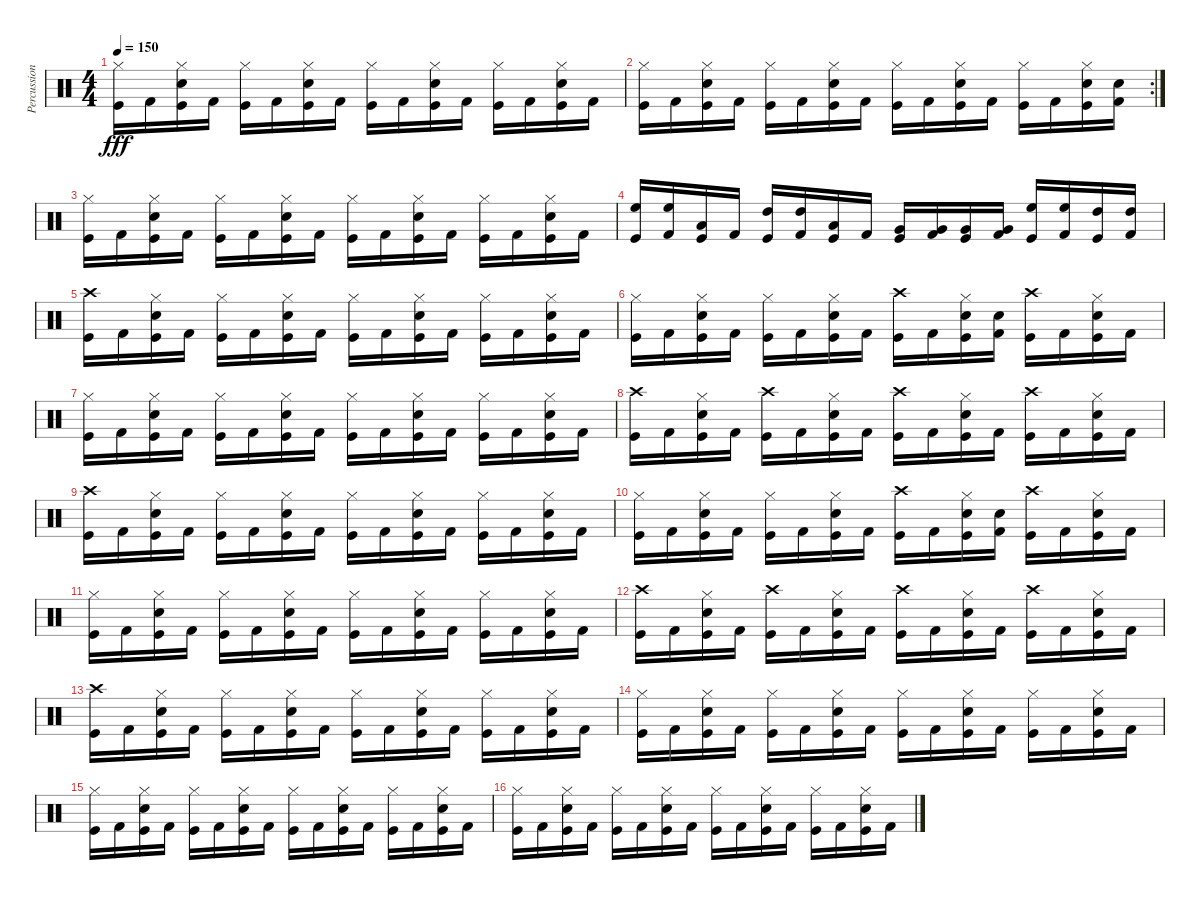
\track ("Percussion" "Percussion") {instrument percussion}
\staff {score}
\articulation defaults
\ts (4 4)
\tempo 150
\clef neutral
\ks c
("Hi-Hat (closed)" "Kick (hit)").16{dy fff} "Kick (hit) 2".16 ("Hi-Hat (closed)" "Electric Snare (hit)" "Kick (hit)").16 "Kick (hit) 2".16 ("Hi-Hat (closed)" "Kick (hit)").16 "Kick (hit) 2".16 ("Hi-Hat (closed)" "Electric Snare (hit)" "Kick (hit)").16 "Kick (hit) 2".16 ("Hi-Hat (closed)" "Kick (hit)").16 "Kick (hit) 2".16 ("Hi-Hat (closed)" "Electric Snare (hit)" "Kick (hit)").16 "Kick (hit) 2".16 ("Hi-Hat (closed)" "Kick (hit)").16 "Kick (hit) 2".16 ("Hi-Hat (closed)" "Electric Snare (hit)" "Kick (hit)").16 "Kick (hit) 2".16 |
\rc 2
("Hi-Hat (closed)" "Kick (hit)").16 "Kick (hit) 2".16 ("Hi-Hat (closed)" "Electric Snare (hit)" "Kick (hit)").16 "Kick (hit) 2".16 ("Hi-Hat (closed)" "Kick (hit)").16 "Kick (hit) 2".16 ("Hi-Hat (closed)" "Electric Snare (hit)" "Kick (hit)").16 "Kick (hit) 2".16 ("Hi-Hat (closed)" "Kick (hit)").16 "Kick (hit) 2".16 ("Hi-Hat (closed)" "Electric Snare (hit)" "Kick (hit)").16 "Kick (hit) 2".16 ("Hi-Hat (closed)" "Kick (hit)").16 "Kick (hit) 2".16 ("Hi-Hat (closed)" "Electric Snare (hit)" "Kick (hit)").16 ("Electric Snare (hit)" "Kick (hit) 2").16 |
("Hi-Hat (closed)" "Kick (hit)").16 "Kick (hit) 2".16 ("Hi-Hat (closed)" "Electric Snare (hit)" "Kick (hit)").16 "Kick (hit) 2".16 ("Hi-Hat (closed)" "Kick (hit)").16 "Kick (hit) 2".16 ("Hi-Hat (closed)" "Electric Snare (hit)" "Kick (hit)").16 "Kick (hit) 2".16 ("Hi-Hat (closed)" "Kick (hit)").16 "Kick (hit) 2".16 ("Hi-Hat (closed)" "Electric Snare (hit)" "Kick (hit)").16 "Kick (hit) 2".16 ("Hi-Hat (closed)" "Kick (hit)").16 "Kick (hit) 2".16 ("Hi-Hat (closed)" "Electric Snare (hit)" "Kick (hit)").16 "Kick (hit) 2".16 |
("High Floor Tom (hit)" "Kick (hit)").16 ("High Floor Tom (hit)" "Kick (hit) 2").16 ("Low Floor Tom (hit)" "Kick (hit)").16 "Kick (hit) 2".16 ("High Tom (hit)" "Kick (hit)").16 ("High Tom (hit)" "Kick (hit) 2").16 ("Low Floor Tom (hit)" "Kick (hit)").16 "Kick (hit) 2".16 ("Very Low Tom (hit)" "Kick (hit)").16 ("Very Low Tom (hit)" "Kick (hit) 2").16 ("Very Low Tom (hit)" "Kick (hit)").16 ("Very Low Tom (hit)" "Kick (hit) 2").16 ("High Floor Tom (hit)" "Kick (hit)").16 ("High Floor Tom (hit)" "Kick (hit) 2").16 ("High Tom (hit)" "Kick (hit)").16 ("High Tom (hit)" "Kick (hit) 2").16 |
("Crash high (hit)" "Kick (hit)").16 "Kick (hit) 2".16 ("Hi-Hat (closed)" "Electric Snare (hit)" "Kick (hit)").16 "Kick (hit) 2".16 ("Hi-Hat (closed)" "Kick (hit)").16 "Kick (hit) 2".16 ("Hi-Hat (closed)" "Electric Snare (hit)" "Kick (hit)").16 "Kick (hit) 2".16 ("Hi-Hat (closed)" "Kick (hit)").16 "Kick (hit) 2".16 ("Hi-Hat (closed)" "Electric Snare (hit)" "Kick (hit)").16 "Kick (hit) 2".16 ("Hi-Hat (closed)" "Kick (hit)").16 "Kick (hit) 2".16 ("Hi-Hat (closed)" "Electric Snare (hit)" "Kick (hit)").16 "Kick (hit) 2".16 |
("Hi-Hat (closed)" "Kick (hit)").16 "Kick (hit) 2".16 ("Hi-Hat (closed)" "Electric Snare (hit)" "Kick (hit)").16 "Kick (hit) 2".16 ("Hi-Hat (closed)" "Kick (hit)").16 "Kick (hit) 2".16 ("Hi-Hat (closed)" "Electric Snare (hit)" "Kick (hit)").16 "Kick (hit) 2".16 ("Crash high (hit)" "Kick (hit)").16 "Kick (hit) 2".16 ("Hi-Hat (closed)" "Electric Snare (hit)" "Kick (hit)").16 ("Electric Snare (hit)" "Kick (hit) 2").16 ("Crash high (hit)" "Kick (hit)").16 "Kick (hit) 2".16 ("Hi-Hat (closed)" "Electric Snare (hit)" "Kick (hit)").16 "Kick (hit) 2".16 |
("Hi-Hat (closed)" "Kick (hit)").16 "Kick (hit) 2".16 ("Hi-Hat (closed)" "Electric Snare (hit)" "Kick (hit)").16 "Kick (hit) 2".16 ("Hi-Hat (closed)" "Kick (hit)").16 "Kick (hit) 2".16 ("Hi-Hat (closed)" "Electric Snare (hit)" "Kick (hit)").16 "Kick (hit) 2".16 ("Hi-Hat (closed)" "Kick (hit)").16 "Kick (hit) 2".16 ("Hi-Hat (closed)" "Electric Snare (hit)" "Kick (hit)").16 "Kick (hit) 2".16 ("Hi-Hat (closed)" "Kick (hit)").16 "Kick (hit) 2".16 ("Hi-Hat (closed)" "Electric Snare (hit)" "Kick (hit)").16 "Kick (hit) 2".16 |
("Crash high (hit)" "Kick (hit)").16 "Kick (hit) 2".16 ("Hi-Hat (closed)" "Electric Snare (hit)" "Kick (hit)").16 "Kick (hit) 2".16 ("Crash high (hit)" "Kick (hit)").16 "Kick (hit) 2".16 ("Hi-Hat (closed)" "Electric Snare (hit)" "Kick (hit)").16 "Kick (hit) 2".16 ("Crash high (hit)" "Kick (hit)").16 "Kick (hit) 2".16 ("Hi-Hat (closed)" "Electric Snare (hit)" "Kick (hit)").16 "Kick (hit) 2".16 ("Crash high (hit)" "Kick (hit)").16 "Kick (hit) 2".16 ("Hi-Hat (closed)" "Electric Snare (hit)" "Kick (hit)").16 "Kick (hit) 2".16 |
("Crash high (hit)" "Kick (hit)").16 "Kick (hit) 2".16 ("Hi-Hat (closed)" "Electric Snare (hit)" "Kick (hit)").16 "Kick (hit) 2".16 ("Hi-Hat (closed)" "Kick (hit)").16 "Kick (hit) 2".16 ("Hi-Hat (closed)" "Electric Snare (hit)" "Kick (hit)").16 "Kick (hit) 2".16 ("Hi-Hat (closed)" "Kick (hit)").16 "Kick (hit) 2".16 ("Hi-Hat (closed)" "Electric Snare (hit)" "Kick (hit)").16 "Kick (hit) 2".16 ("Hi-Hat (closed)" "Kick (hit)").16 "Kick (hit) 2".16 ("Hi-Hat (closed)" "Electric Snare (hit)" "Kick (hit)").16 "Kick (hit) 2".16 |
("Hi-Hat (closed)" "Kick (hit)").16 "Kick (hit) 2".16 ("Hi-Hat (closed)" "Electric Snare (hit)" "Kick (hit)").16 "Kick (hit) 2".16 ("Hi-Hat (closed)" "Kick (hit)").16 "Kick (hit) 2".16 ("Hi-Hat (closed)" "Electric Snare (hit)" "Kick (hit)").16 "Kick (hit) 2".16 ("Crash high (hit)" "Kick (hit)").16 "Kick (hit) 2".16 ("Hi-Hat (closed)" "Electric Snare (hit)" "Kick (hit)").16 ("Electric Snare (hit)" "Kick (hit) 2").16 ("Crash high (hit)" "Kick (hit)").16 "Kick (hit) 2".16 ("Hi-Hat (closed)" "Electric Snare (hit)" "Kick (hit)").16 "Kick (hit) 2".16 |
("Hi-Hat (closed)" "Kick (hit)").16 "Kick (hit) 2".16 ("Hi-Hat (closed)" "Electric Snare (hit)" "Kick (hit)").16 "Kick (hit) 2".16 ("Hi-Hat (closed)" "Kick (hit)").16 "Kick (hit) 2".16 ("Hi-Hat (closed)" "Electric Snare (hit)" "Kick (hit)").16 "Kick (hit) 2".16 ("Hi-Hat (closed)" "Kick (hit)").16 "Kick (hit) 2".16 ("Hi-Hat (closed)" "Electric Snare (hit)" "Kick (hit)").16 "Kick (hit) 2".16 ("Hi-Hat (closed)" "Kick (hit)").16 "Kick (hit) 2".16 ("Hi-Hat (closed)" "Electric Snare (hit)" "Kick (hit)").16 "Kick (hit) 2".16 |
("Crash high (hit)" "Kick (hit)").16 "Kick (hit) 2".16 ("Hi-Hat (closed)" "Electric Snare (hit)" "Kick (hit)").16 "Kick (hit) 2".16 ("Crash high (hit)" "Kick (hit)").16 "Kick (hit) 2".16 ("Hi-Hat (closed)" "Electric Snare (hit)" "Kick (hit)").16 "Kick (hit) 2".16 ("Crash high (hit)" "Kick (hit)").16 "Kick (hit) 2".16 ("Hi-Hat (closed)" "Electric Snare (hit)" "Kick (hit)").16 "Kick (hit) 2".16 ("Crash high (hit)" "Kick (hit)").16 "Kick (hit) 2".16 ("Hi-Hat (closed)" "Electric Snare (hit)" "Kick (hit)").16 "Kick (hit) 2".16 |
("Crash high (hit)" "Kick (hit)").16 "Kick (hit) 2".16 ("Hi-Hat (closed)" "Electric Snare (hit)" "Kick (hit)").16 "Kick (hit) 2".16 ("Hi-Hat (closed)" "Kick (hit)").16 "Kick (hit) 2".16 ("Hi-Hat (closed)" "Electric Snare (hit)" "Kick (hit)").16 "Kick (hit) 2".16 ("Hi-Hat (closed)" "Kick (hit)").16 "Kick (hit) 2".16 ("Hi-Hat (closed)" "Electric Snare (hit)" "Kick (hit)").16 "Kick (hit) 2".16 ("Hi-Hat (closed)" "Kick (hit)").16 "Kick (hit) 2".16 ("Hi-Hat (closed)" "Electric Snare (hit)" "Kick (hit)").16 "Kick (hit) 2".16 |
("Hi-Hat (closed)" "Kick (hit)").16 "Kick (hit) 2".16 ("Hi-Hat (closed)" "Electric Snare (hit)" "Kick (hit)").16 "Kick (hit) 2".16 ("Hi-Hat (closed)" "Kick (hit)").16 "Kick (hit) 2".16 ("Hi-Hat (closed)" "Electric Snare (hit)" "Kick (hit)").16 "Kick (hit) 2".16 ("Hi-Hat (closed)" "Kick (hit)").16 "Kick (hit) 2".16 ("Hi-Hat (closed)" "Electric Snare (hit)" "Kick (hit)").16 "Kick (hit) 2".16 ("Hi-Hat (closed)" "Kick (hit)").16 "Kick (hit) 2".16 ("Hi-Hat (closed)" "Electric Snare (hit)" "Kick (hit)").16 "Kick (hit) 2".16 |
("Hi-Hat (closed)" "Kick (hit)").16 "Kick (hit) 2".16 ("Hi-Hat (closed)" "Electric Snare (hit)" "Kick (hit)").16 "Kick (hit) 2".16 ("Hi-Hat (closed)" "Kick (hit)").16 "Kick (hit) 2".16 ("Hi-Hat (closed)" "Electric Snare (hit)" "Kick (hit)").16 "Kick (hit) 2".16 ("Hi-Hat (closed)" "Kick (hit)").16 "Kick (hit) 2".16 ("Hi-Hat (closed)" "Electric Snare (hit)" "Kick (hit)").16 "Kick (hit) 2".16 ("Hi-Hat (closed)" "Kick (hit)").16 "Kick (hit) 2".16 ("Hi-Hat (closed)" "Electric Snare (hit)" "Kick (hit)").16 "Kick (hit) 2".16 |
("Hi-Hat (closed)" "Kick (hit)").16 "Kick (hit) 2".16 ("Hi-Hat (closed)" "Electric Snare (hit)" "Kick (hit)").16 "Kick (hit) 2".16 ("Hi-Hat (closed)" "Kick (hit)").16 "Kick (hit) 2".16 ("Hi-Hat (closed)" "Electric Snare (hit)" "Kick (hit)").16 "Kick (hit) 2".16 ("Hi-Hat (closed)" "Kick (hit)").16 "Kick (hit) 2".16 ("Hi-Hat (closed)" "Electric Snare (hit)" "Kick (hit)").16 "Kick (hit) 2".16 ("Hi-Hat (closed)" "Kick (hit)").16 "Kick (hit) 2".16 ("Hi-Hat (closed)" "Electric Snare (hit)" "Kick (hit)").16 "Kick (hit) 2".16
